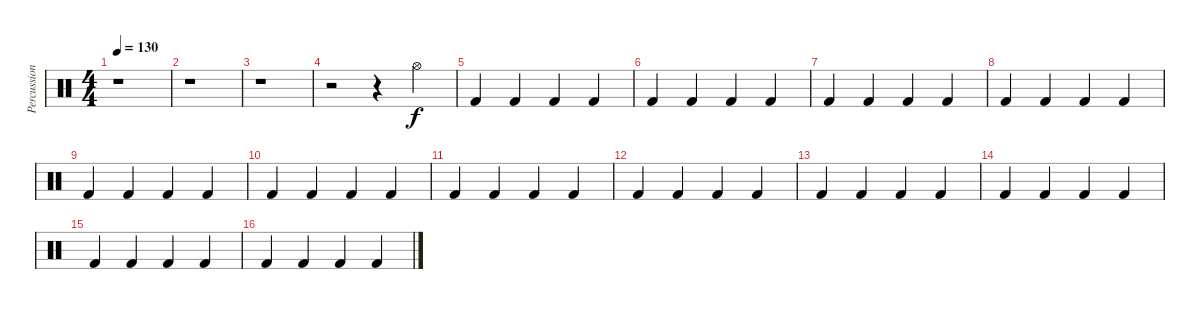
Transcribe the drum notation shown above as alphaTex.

\track ("Percussions" "Percussion") {instrument percussion}
\staff {score}
\articulation defaults
\ts (4 4)
\tempo 130
\clef neutral
\ks c
r.1{dy f} |
r.1 |
r.1 |
r.2 r.4 "Hi-Hat (open)".4 |
"Kick (hit) 2".4 "Kick (hit) 2".4 "Kick (hit) 2".4 "Kick (hit) 2".4 |
"Kick (hit) 2".4 "Kick (hit) 2".4 "Kick (hit) 2".4 "Kick (hit) 2".4 |
"Kick (hit) 2".4 "Kick (hit) 2".4 "Kick (hit) 2".4 "Kick (hit) 2".4 |
"Kick (hit) 2".4 "Kick (hit) 2".4 "Kick (hit) 2".4 "Kick (hit) 2".4 |
"Kick (hit) 2".4 "Kick (hit) 2".4 "Kick (hit) 2".4 "Kick (hit) 2".4 |
"Kick (hit) 2".4 "Kick (hit) 2".4 "Kick (hit) 2".4 "Kick (hit) 2".4 |
"Kick (hit) 2".4 "Kick (hit) 2".4 "Kick (hit) 2".4 "Kick (hit) 2".4 |
"Kick (hit) 2".4 "Kick (hit) 2".4 "Kick (hit) 2".4 "Kick (hit) 2".4 |
"Kick (hit) 2".4 "Kick (hit) 2".4 "Kick (hit) 2".4 "Kick (hit) 2".4 |
"Kick (hit) 2".4 "Kick (hit) 2".4 "Kick (hit) 2".4 "Kick (hit) 2".4 |
"Kick (hit) 2".4 "Kick (hit) 2".4 "Kick (hit) 2".4 "Kick (hit) 2".4 |
"Kick (hit) 2".4 "Kick (hit) 2".4 "Kick (hit) 2".4 "Kick (hit) 2".4
